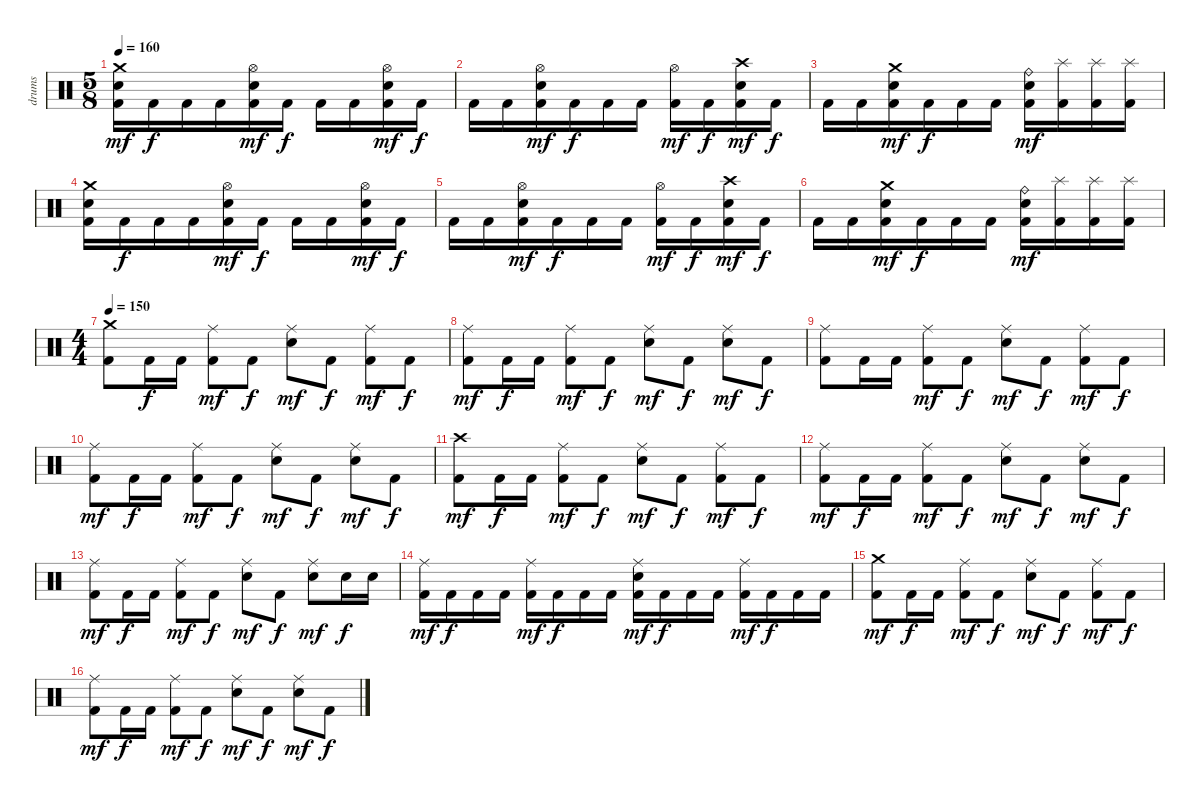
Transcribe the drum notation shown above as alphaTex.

\track ("drums" "drums") {instrument percussion}
\staff {score}
\articulation defaults
\ts (5 8)
\tempo 160
\clef neutral
\ks c
("Crash medium (hit)" "Snare (hit) 2" "Kick (hit) 2").16{dy mf} "Kick (hit) 2".16{dy f} "Kick (hit) 2".16 "Kick (hit) 2".16 ("Hi-Hat (open)" "Snare (hit) 2" "Kick (hit) 2").16{dy mf} "Kick (hit) 2".16{dy f} "Kick (hit) 2".16 "Kick (hit) 2".16 ("Hi-Hat (open)" "Snare (hit) 2" "Kick (hit) 2").16{dy mf} "Kick (hit) 2".16{dy f} |
"Kick (hit) 2".16 "Kick (hit) 2".16 ("Hi-Hat (open)" "Snare (hit) 2" "Kick (hit) 2").16{dy mf} "Kick (hit) 2".16{dy f} "Kick (hit) 2".16 "Kick (hit) 2".16 ("Hi-Hat (open)" "Kick (hit) 2").16{dy mf} "Kick (hit) 2".16{dy f} ("Crash high (hit)" "Snare (hit) 2" "Kick (hit) 2").16{dy mf} "Kick (hit) 2".16{dy f} |
"Kick (hit) 2".16 "Kick (hit) 2".16 ("Crash medium (hit)" "Snare (hit) 2" "Kick (hit) 2").16{dy mf} "Kick (hit) 2".16{dy f} "Kick (hit) 2".16 "Kick (hit) 2".16 ("Ride (bell)" "Snare (hit) 2" "Kick (hit) 2").16{dy mf} ("Splash (hit)" "Kick (hit) 2").16 ("Splash (hit)" "Kick (hit) 2").16 ("Splash (hit)" "Kick (hit) 2").16 |
("Crash medium (hit)" "Snare (hit) 2" "Kick (hit) 2").16 "Kick (hit) 2".16{dy f} "Kick (hit) 2".16 "Kick (hit) 2".16 ("Hi-Hat (open)" "Snare (hit) 2" "Kick (hit) 2").16{dy mf} "Kick (hit) 2".16{dy f} "Kick (hit) 2".16 "Kick (hit) 2".16 ("Hi-Hat (open)" "Snare (hit) 2" "Kick (hit) 2").16{dy mf} "Kick (hit) 2".16{dy f} |
"Kick (hit) 2".16 "Kick (hit) 2".16 ("Hi-Hat (open)" "Snare (hit) 2" "Kick (hit) 2").16{dy mf} "Kick (hit) 2".16{dy f} "Kick (hit) 2".16 "Kick (hit) 2".16 ("Hi-Hat (open)" "Kick (hit) 2").16{dy mf} "Kick (hit) 2".16{dy f} ("Crash high (hit)" "Snare (hit) 2" "Kick (hit) 2").16{dy mf} "Kick (hit) 2".16{dy f} |
"Kick (hit) 2".16 "Kick (hit) 2".16 ("Crash medium (hit)" "Snare (hit) 2" "Kick (hit) 2").16{dy mf} "Kick (hit) 2".16{dy f} "Kick (hit) 2".16 "Kick (hit) 2".16 ("Ride (bell)" "Snare (hit) 2" "Kick (hit) 2").16{dy mf} ("Splash (hit)" "Kick (hit) 2").16 ("Splash (hit)" "Kick (hit) 2").16 ("Splash (hit)" "Kick (hit) 2").16 |
\ts (4 4)
\tempo 150
("Crash medium (hit)" "Kick (hit) 2").8 "Kick (hit) 2".16{dy f} "Kick (hit) 2".16 ("Ride (middle)" "Kick (hit) 2").8{dy mf} "Kick (hit) 2".8{dy f} ("Ride (middle)" "Snare (hit) 2").8{dy mf} "Kick (hit) 2".8{dy f} ("Ride (middle)" "Kick (hit) 2").8{dy mf} "Kick (hit) 2".8{dy f} |
("Ride (middle)" "Kick (hit) 2").8{dy mf} "Kick (hit) 2".16{dy f} "Kick (hit) 2".16 ("Ride (middle)" "Kick (hit) 2").8{dy mf} "Kick (hit) 2".8{dy f} ("Ride (middle)" "Snare (hit) 2").8{dy mf} "Kick (hit) 2".8{dy f} ("Ride (middle)" "Snare (hit) 2").8{dy mf} "Kick (hit) 2".8{dy f} |
("Ride (middle)" "Kick (hit) 2").8 "Kick (hit) 2".16 "Kick (hit) 2".16 ("Ride (middle)" "Kick (hit) 2").8{dy mf} "Kick (hit) 2".8{dy f} ("Ride (middle)" "Snare (hit) 2").8{dy mf} "Kick (hit) 2".8{dy f} ("Ride (middle)" "Kick (hit) 2").8{dy mf} "Kick (hit) 2".8{dy f} |
("Ride (middle)" "Kick (hit) 2").8{dy mf} "Kick (hit) 2".16{dy f} "Kick (hit) 2".16 ("Ride (middle)" "Kick (hit) 2").8{dy mf} "Kick (hit) 2".8{dy f} ("Ride (middle)" "Snare (hit) 2").8{dy mf} "Kick (hit) 2".8{dy f} ("Ride (middle)" "Snare (hit) 2").8{dy mf} "Kick (hit) 2".8{dy f} |
("Crash high (hit)" "Kick (hit) 2").8{dy mf} "Kick (hit) 2".16{dy f} "Kick (hit) 2".16 ("Ride (middle)" "Kick (hit) 2").8{dy mf} "Kick (hit) 2".8{dy f} ("Ride (middle)" "Snare (hit) 2").8{dy mf} "Kick (hit) 2".8{dy f} ("Ride (middle)" "Kick (hit) 2").8{dy mf} "Kick (hit) 2".8{dy f} |
("Ride (middle)" "Kick (hit) 2").8{dy mf} "Kick (hit) 2".16{dy f} "Kick (hit) 2".16 ("Ride (middle)" "Kick (hit) 2").8{dy mf} "Kick (hit) 2".8{dy f} ("Ride (middle)" "Snare (hit) 2").8{dy mf} "Kick (hit) 2".8{dy f} ("Ride (middle)" "Snare (hit) 2").8{dy mf} "Kick (hit) 2".8{dy f} |
("Ride (middle)" "Kick (hit) 2").8{dy mf} "Kick (hit) 2".16{dy f} "Kick (hit) 2".16 ("Ride (middle)" "Kick (hit) 2").8{dy mf} "Kick (hit) 2".8{dy f} ("Ride (middle)" "Snare (hit) 2").8{dy mf} "Kick (hit) 2".8{dy f} ("Ride (middle)" "Snare (hit) 2").8{dy mf} "Snare (hit) 2".16{dy f} "Snare (hit) 2".16 |
("Ride (middle)" "Kick (hit) 2").16{dy mf} "Kick (hit) 2".16{dy f} "Kick (hit) 2".16 "Kick (hit) 2".16 ("Ride (middle)" "Kick (hit) 2").16{dy mf} "Kick (hit) 2".16{dy f} "Kick (hit) 2".16 "Kick (hit) 2".16 ("Ride (middle)" "Snare (hit) 2" "Kick (hit) 2").16{dy mf} "Kick (hit) 2".16{dy f} "Kick (hit) 2".16 "Kick (hit) 2".16 ("Ride (middle)" "Kick (hit) 2").16{dy mf} "Kick (hit) 2".16{dy f} "Kick (hit) 2".16 "Kick (hit) 2".16 |
("Crash medium (hit)" "Kick (hit) 2").8{dy mf} "Kick (hit) 2".16{dy f} "Kick (hit) 2".16 ("Ride (middle)" "Kick (hit) 2").8{dy mf} "Kick (hit) 2".8{dy f} ("Ride (middle)" "Snare (hit) 2").8{dy mf} "Kick (hit) 2".8{dy f} ("Ride (middle)" "Kick (hit) 2").8{dy mf} "Kick (hit) 2".8{dy f} |
("Ride (middle)" "Kick (hit) 2").8{dy mf} "Kick (hit) 2".16{dy f} "Kick (hit) 2".16 ("Ride (middle)" "Kick (hit) 2").8{dy mf} "Kick (hit) 2".8{dy f} ("Ride (middle)" "Snare (hit) 2").8{dy mf} "Kick (hit) 2".8{dy f} ("Ride (middle)" "Snare (hit) 2").8{dy mf} "Kick (hit) 2".8{dy f}
